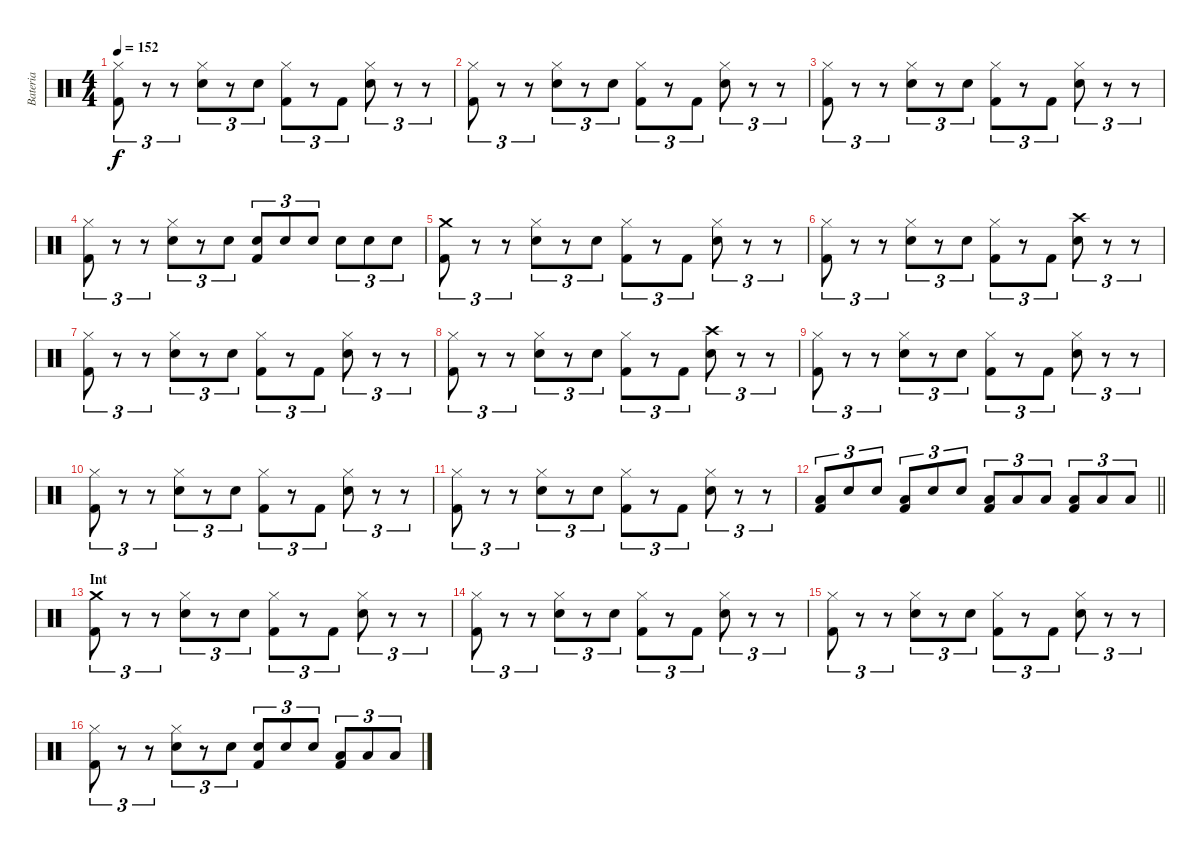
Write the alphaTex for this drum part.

\track ("Bateria" "Bateria") {instrument percussion}
\staff {score}
\articulation defaults
\ts (4 4)
\tempo 152
\clef neutral
\ks c
("Hi-Hat (closed)" "Kick (hit) 2").8{tu (3 2) dy f} r.8{tu (3 2)} r.8{tu (3 2)} ("Hi-Hat (closed)" "Snare (hit) 2").8{tu (3 2)} r.8{tu (3 2)} "Snare (hit) 2".8{tu (3 2)} ("Hi-Hat (closed)" "Kick (hit) 2").8{tu (3 2)} r.8{tu (3 2)} "Kick (hit) 2".8{tu (3 2)} ("Hi-Hat (closed)" "Snare (hit) 2").8{tu (3 2)} r.8{tu (3 2)} r.8{tu (3 2)} |
("Hi-Hat (closed)" "Kick (hit) 2").8{tu (3 2)} r.8{tu (3 2)} r.8{tu (3 2)} ("Hi-Hat (closed)" "Snare (hit) 2").8{tu (3 2)} r.8{tu (3 2)} "Snare (hit) 2".8{tu (3 2)} ("Hi-Hat (closed)" "Kick (hit) 2").8{tu (3 2)} r.8{tu (3 2)} "Kick (hit) 2".8{tu (3 2)} ("Hi-Hat (closed)" "Snare (hit) 2").8{tu (3 2)} r.8{tu (3 2)} r.8{tu (3 2)} |
("Hi-Hat (closed)" "Kick (hit) 2").8{tu (3 2)} r.8{tu (3 2)} r.8{tu (3 2)} ("Hi-Hat (closed)" "Snare (hit) 2").8{tu (3 2)} r.8{tu (3 2)} "Snare (hit) 2".8{tu (3 2)} ("Hi-Hat (closed)" "Kick (hit) 2").8{tu (3 2)} r.8{tu (3 2)} "Kick (hit) 2".8{tu (3 2)} ("Hi-Hat (closed)" "Snare (hit) 2").8{tu (3 2)} r.8{tu (3 2)} r.8{tu (3 2)} |
("Hi-Hat (closed)" "Kick (hit) 2").8{tu (3 2)} r.8{tu (3 2)} r.8{tu (3 2)} ("Hi-Hat (closed)" "Snare (hit) 2").8{tu (3 2)} r.8{tu (3 2)} "Snare (hit) 2".8{tu (3 2)} ("Snare (hit) 2" "Kick (hit) 2").8{tu (3 2)} "Snare (hit) 2".8{tu (3 2)} "Snare (hit) 2".8{tu (3 2)} "Snare (hit) 2".8{tu (3 2)} "Snare (hit) 2".8{tu (3 2)} "Snare (hit) 2".8{tu (3 2)} |
("Crash medium (hit)" "Kick (hit) 2").8{tu (3 2)} r.8{tu (3 2)} r.8{tu (3 2)} ("Hi-Hat (closed)" "Snare (hit) 2").8{tu (3 2)} r.8{tu (3 2)} "Snare (hit) 2".8{tu (3 2)} ("Hi-Hat (closed)" "Kick (hit) 2").8{tu (3 2)} r.8{tu (3 2)} "Kick (hit) 2".8{tu (3 2)} ("Hi-Hat (closed)" "Snare (hit) 2").8{tu (3 2)} r.8{tu (3 2)} r.8{tu (3 2)} |
("Hi-Hat (closed)" "Kick (hit) 2").8{tu (3 2)} r.8{tu (3 2)} r.8{tu (3 2)} ("Hi-Hat (closed)" "Snare (hit) 2").8{tu (3 2)} r.8{tu (3 2)} "Snare (hit) 2".8{tu (3 2)} ("Hi-Hat (closed)" "Kick (hit) 2").8{tu (3 2)} r.8{tu (3 2)} "Kick (hit) 2".8{tu (3 2)} ("Crash high (hit)" "Snare (hit) 2").8{tu (3 2)} r.8{tu (3 2)} r.8{tu (3 2)} |
("Hi-Hat (closed)" "Kick (hit) 2").8{tu (3 2)} r.8{tu (3 2)} r.8{tu (3 2)} ("Hi-Hat (closed)" "Snare (hit) 2").8{tu (3 2)} r.8{tu (3 2)} "Snare (hit) 2".8{tu (3 2)} ("Hi-Hat (closed)" "Kick (hit) 2").8{tu (3 2)} r.8{tu (3 2)} "Kick (hit) 2".8{tu (3 2)} ("Hi-Hat (closed)" "Snare (hit) 2").8{tu (3 2)} r.8{tu (3 2)} r.8{tu (3 2)} |
("Hi-Hat (closed)" "Kick (hit) 2").8{tu (3 2)} r.8{tu (3 2)} r.8{tu (3 2)} ("Hi-Hat (closed)" "Snare (hit) 2").8{tu (3 2)} r.8{tu (3 2)} "Snare (hit) 2".8{tu (3 2)} ("Hi-Hat (closed)" "Kick (hit) 2").8{tu (3 2)} r.8{tu (3 2)} "Kick (hit) 2".8{tu (3 2)} ("Crash high (hit)" "Snare (hit) 2").8{tu (3 2)} r.8{tu (3 2)} r.8{tu (3 2)} |
("Hi-Hat (closed)" "Kick (hit) 2").8{tu (3 2)} r.8{tu (3 2)} r.8{tu (3 2)} ("Hi-Hat (closed)" "Snare (hit) 2").8{tu (3 2)} r.8{tu (3 2)} "Snare (hit) 2".8{tu (3 2)} ("Hi-Hat (closed)" "Kick (hit) 2").8{tu (3 2)} r.8{tu (3 2)} "Kick (hit) 2".8{tu (3 2)} ("Hi-Hat (closed)" "Snare (hit) 2").8{tu (3 2)} r.8{tu (3 2)} r.8{tu (3 2)} |
("Hi-Hat (closed)" "Kick (hit) 2").8{tu (3 2)} r.8{tu (3 2)} r.8{tu (3 2)} ("Hi-Hat (closed)" "Snare (hit) 2").8{tu (3 2)} r.8{tu (3 2)} "Snare (hit) 2".8{tu (3 2)} ("Hi-Hat (closed)" "Kick (hit) 2").8{tu (3 2)} r.8{tu (3 2)} "Kick (hit) 2".8{tu (3 2)} ("Hi-Hat (closed)" "Snare (hit) 2").8{tu (3 2)} r.8{tu (3 2)} r.8{tu (3 2)} |
("Hi-Hat (closed)" "Kick (hit) 2").8{tu (3 2)} r.8{tu (3 2)} r.8{tu (3 2)} ("Hi-Hat (closed)" "Snare (hit) 2").8{tu (3 2)} r.8{tu (3 2)} "Snare (hit) 2".8{tu (3 2)} ("Hi-Hat (closed)" "Kick (hit) 2").8{tu (3 2)} r.8{tu (3 2)} "Kick (hit) 2".8{tu (3 2)} ("Hi-Hat (closed)" "Snare (hit) 2").8{tu (3 2)} r.8{tu (3 2)} r.8{tu (3 2)} |
\barLineRight lightlight
("Low Floor Tom (hit)" "Kick (hit) 2").8{tu (3 2)} "Snare (hit) 2".8{tu (3 2)} "Snare (hit) 2".8{tu (3 2)} ("Low Floor Tom (hit)" "Kick (hit) 2").8{tu (3 2)} "Snare (hit) 2".8{tu (3 2)} "Snare (hit) 2".8{tu (3 2)} ("Low Floor Tom (hit)" "Kick (hit) 2").8{tu (3 2)} "Low Tom (hit)".8{tu (3 2)} "Low Tom (hit)".8{tu (3 2)} ("Low Floor Tom (hit)" "Kick (hit) 2").8{tu (3 2)} "Low Floor Tom (hit)".8{tu (3 2)} "Low Floor Tom (hit)".8{tu (3 2)} |
\section ("" "Int")
("Crash medium (hit)" "Kick (hit) 2").8{tu (3 2)} r.8{tu (3 2)} r.8{tu (3 2)} ("Hi-Hat (closed)" "Snare (hit) 2").8{tu (3 2)} r.8{tu (3 2)} "Snare (hit) 2".8{tu (3 2)} ("Hi-Hat (closed)" "Kick (hit) 2").8{tu (3 2)} r.8{tu (3 2)} "Kick (hit) 2".8{tu (3 2)} ("Hi-Hat (closed)" "Snare (hit) 2").8{tu (3 2)} r.8{tu (3 2)} r.8{tu (3 2)} |
("Hi-Hat (closed)" "Kick (hit) 2").8{tu (3 2)} r.8{tu (3 2)} r.8{tu (3 2)} ("Hi-Hat (closed)" "Snare (hit) 2").8{tu (3 2)} r.8{tu (3 2)} "Snare (hit) 2".8{tu (3 2)} ("Hi-Hat (closed)" "Kick (hit) 2").8{tu (3 2)} r.8{tu (3 2)} "Kick (hit) 2".8{tu (3 2)} ("Hi-Hat (closed)" "Snare (hit) 2").8{tu (3 2)} r.8{tu (3 2)} r.8{tu (3 2)} |
("Hi-Hat (closed)" "Kick (hit) 2").8{tu (3 2)} r.8{tu (3 2)} r.8{tu (3 2)} ("Hi-Hat (closed)" "Snare (hit) 2").8{tu (3 2)} r.8{tu (3 2)} "Snare (hit) 2".8{tu (3 2)} ("Hi-Hat (closed)" "Kick (hit) 2").8{tu (3 2)} r.8{tu (3 2)} "Kick (hit) 2".8{tu (3 2)} ("Hi-Hat (closed)" "Snare (hit) 2").8{tu (3 2)} r.8{tu (3 2)} r.8{tu (3 2)} |
("Hi-Hat (closed)" "Kick (hit) 2").8{tu (3 2)} r.8{tu (3 2)} r.8{tu (3 2)} ("Hi-Hat (closed)" "Snare (hit) 2").8{tu (3 2)} r.8{tu (3 2)} "Snare (hit) 2".8{tu (3 2)} ("Snare (hit) 2" "Kick (hit) 2").8{tu (3 2)} "Snare (hit) 2".8{tu (3 2)} "Snare (hit) 2".8{tu (3 2)} ("Low Floor Tom (hit)" "Kick (hit) 2").8{tu (3 2)} "Low Floor Tom (hit)".8{tu (3 2)} "Low Floor Tom (hit)".8{tu (3 2)}
